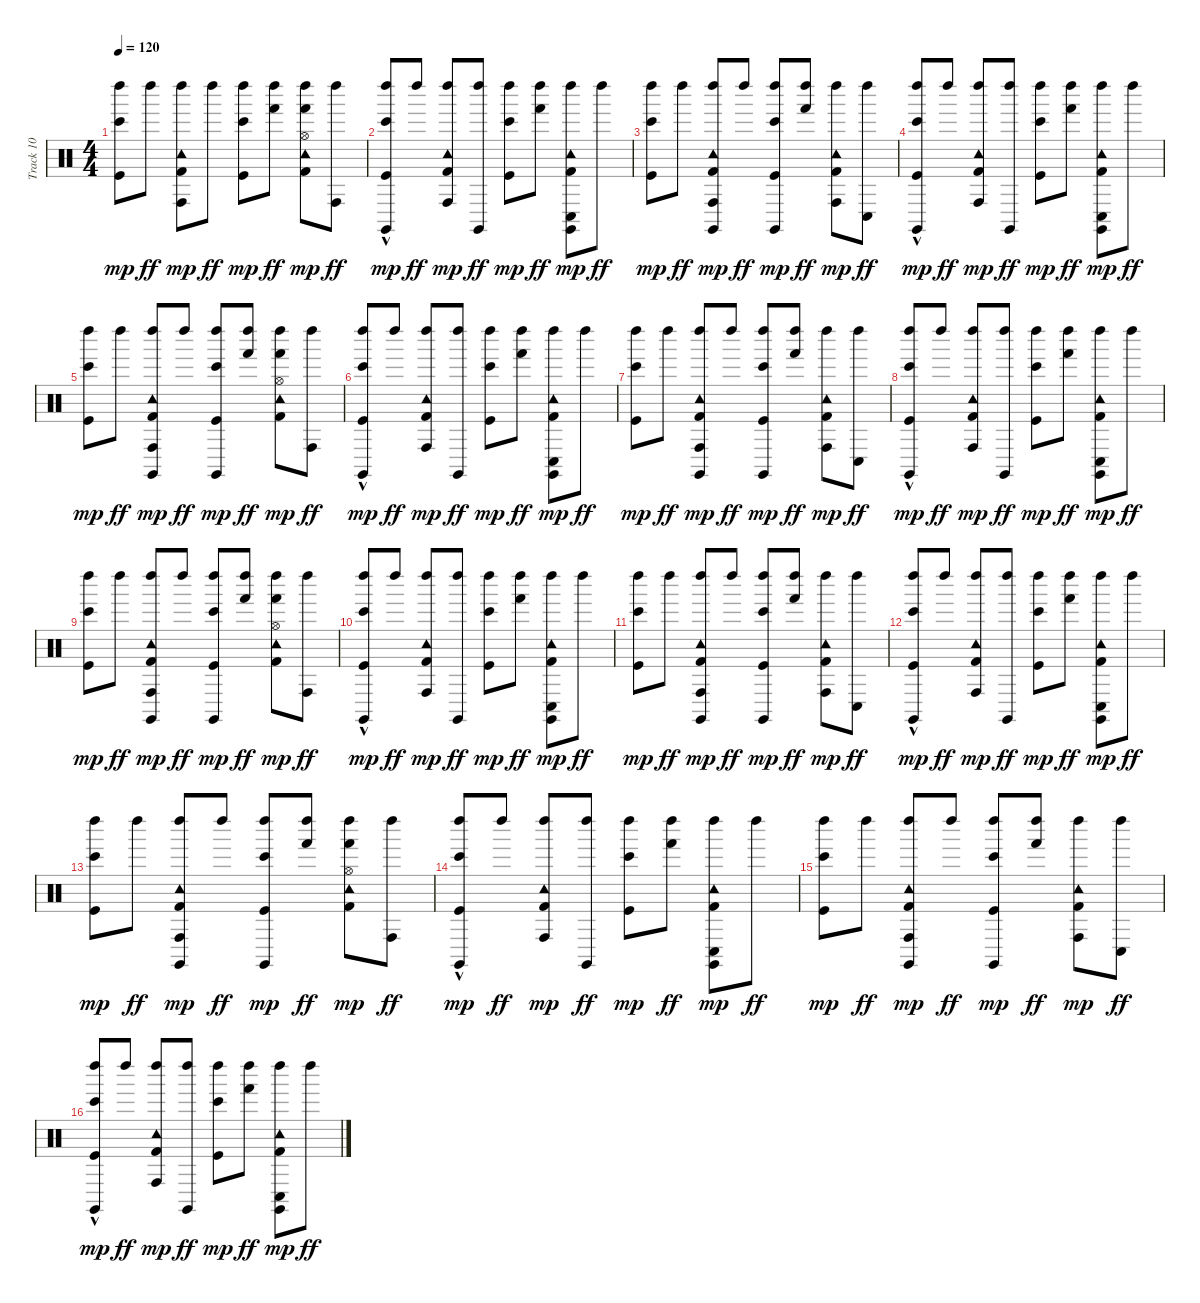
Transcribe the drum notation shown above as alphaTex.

\track ("Track 10" "Track 10") {instrument percussion}
\staff {score}
\articulation defaults
\ts (4 4)
\tempo 120
\clef neutral
\ks c
("Bongo High (hit)" "Left Maraca (hit)" "Kick (hit)").8{dy mp} "Left Maraca (hit)".8{dy ff} ("Conga high (hit)" "Tambourine (hit)" "Left Maraca (hit)" "Kick (hit) 2").8{dy mp} "Left Maraca (hit)".8{dy ff} ("Bongo High (hit)" "Left Maraca (hit)" "Kick (hit)").8{dy mp} ("Hand (hit)" "Left Maraca (hit)").8{dy ff} ("Hand (hit)" "Hi-Hat (open)" "Tambourine (hit)" "Left Maraca (hit)" "Kick (hit) 2").8{dy mp} ("Conga high (hit)" "Left Maraca (hit)").8{dy ff} |
("Bongo High (hit)" "Left Maraca (hit)" "Kick (hit)" "Claves (hit)"{hac}).8{dy mp} "Left Maraca (hit)".8{dy ff} ("Conga high (hit)" "Tambourine (hit)" "Left Maraca (hit)" "Kick (hit) 2").8{dy mp} ("Left Maraca (hit)" "Claves (hit)").8{dy ff} ("Bongo High (hit)" "Left Maraca (hit)" "Kick (hit)").8{dy mp} ("Hand (hit)" "Left Maraca (hit)").8{dy ff} ("Conga low (hit)" "Tambourine (hit)" "Left Maraca (hit)" "Kick (hit) 2" "Claves (hit)").8{dy mp} "Left Maraca (hit)".8{dy ff} |
("Bongo High (hit)" "Left Maraca (hit)" "Kick (hit)").8{dy mp} "Left Maraca (hit)".8{dy ff} ("Conga high (hit)" "Tambourine (hit)" "Left Maraca (hit)" "Kick (hit) 2" "Claves (hit)").8{dy mp} "Left Maraca (hit)".8{dy ff} ("Bongo High (hit)" "Left Maraca (hit)" "Kick (hit)" "Claves (hit)").8{dy mp} ("Hand (hit)" "Left Maraca (hit)").8{dy ff} ("Conga high (hit)" "Tambourine (hit)" "Left Maraca (hit)" "Kick (hit) 2").8{dy mp} ("Conga low (hit)" "Left Maraca (hit)").8{dy ff} |
("Bongo High (hit)" "Left Maraca (hit)" "Kick (hit)" "Claves (hit)"{hac}).8{dy mp} "Left Maraca (hit)".8{dy ff} ("Conga high (hit)" "Tambourine (hit)" "Left Maraca (hit)" "Kick (hit) 2").8{dy mp} ("Left Maraca (hit)" "Claves (hit)").8{dy ff} ("Bongo High (hit)" "Left Maraca (hit)" "Kick (hit)").8{dy mp} ("Hand (hit)" "Left Maraca (hit)").8{dy ff} ("Conga low (hit)" "Tambourine (hit)" "Left Maraca (hit)" "Kick (hit) 2" "Claves (hit)").8{dy mp} "Left Maraca (hit)".8{dy ff} |
("Bongo High (hit)" "Left Maraca (hit)" "Kick (hit)").8{dy mp} "Left Maraca (hit)".8{dy ff} ("Conga high (hit)" "Tambourine (hit)" "Left Maraca (hit)" "Kick (hit) 2" "Claves (hit)").8{dy mp} "Left Maraca (hit)".8{dy ff} ("Bongo High (hit)" "Left Maraca (hit)" "Kick (hit)" "Claves (hit)").8{dy mp} ("Hand (hit)" "Left Maraca (hit)").8{dy ff} ("Hand (hit)" "Hi-Hat (open)" "Tambourine (hit)" "Left Maraca (hit)" "Kick (hit) 2").8{dy mp} ("Conga high (hit)" "Left Maraca (hit)").8{dy ff} |
("Bongo High (hit)" "Left Maraca (hit)" "Kick (hit)" "Claves (hit)"{hac}).8{dy mp} "Left Maraca (hit)".8{dy ff} ("Conga high (hit)" "Tambourine (hit)" "Left Maraca (hit)" "Kick (hit) 2").8{dy mp} ("Left Maraca (hit)" "Claves (hit)").8{dy ff} ("Bongo High (hit)" "Left Maraca (hit)" "Kick (hit)").8{dy mp} ("Hand (hit)" "Left Maraca (hit)").8{dy ff} ("Conga low (hit)" "Tambourine (hit)" "Left Maraca (hit)" "Kick (hit) 2" "Claves (hit)").8{dy mp} "Left Maraca (hit)".8{dy ff} |
("Bongo High (hit)" "Left Maraca (hit)" "Kick (hit)").8{dy mp} "Left Maraca (hit)".8{dy ff} ("Conga high (hit)" "Tambourine (hit)" "Left Maraca (hit)" "Kick (hit) 2" "Claves (hit)").8{dy mp} "Left Maraca (hit)".8{dy ff} ("Bongo High (hit)" "Left Maraca (hit)" "Kick (hit)" "Claves (hit)").8{dy mp} ("Hand (hit)" "Left Maraca (hit)").8{dy ff} ("Conga high (hit)" "Tambourine (hit)" "Left Maraca (hit)" "Kick (hit) 2").8{dy mp} ("Conga low (hit)" "Left Maraca (hit)").8{dy ff} |
("Bongo High (hit)" "Left Maraca (hit)" "Kick (hit)" "Claves (hit)"{hac}).8{dy mp} "Left Maraca (hit)".8{dy ff} ("Conga high (hit)" "Tambourine (hit)" "Left Maraca (hit)" "Kick (hit) 2").8{dy mp} ("Left Maraca (hit)" "Claves (hit)").8{dy ff} ("Bongo High (hit)" "Left Maraca (hit)" "Kick (hit)").8{dy mp} ("Hand (hit)" "Left Maraca (hit)").8{dy ff} ("Conga low (hit)" "Tambourine (hit)" "Left Maraca (hit)" "Kick (hit) 2" "Claves (hit)").8{dy mp} "Left Maraca (hit)".8{dy ff} |
("Bongo High (hit)" "Left Maraca (hit)" "Kick (hit)").8{dy mp} "Left Maraca (hit)".8{dy ff} ("Conga high (hit)" "Tambourine (hit)" "Left Maraca (hit)" "Kick (hit) 2" "Claves (hit)").8{dy mp} "Left Maraca (hit)".8{dy ff} ("Bongo High (hit)" "Left Maraca (hit)" "Kick (hit)" "Claves (hit)").8{dy mp} ("Hand (hit)" "Left Maraca (hit)").8{dy ff} ("Hand (hit)" "Hi-Hat (open)" "Tambourine (hit)" "Left Maraca (hit)" "Kick (hit) 2").8{dy mp} ("Conga high (hit)" "Left Maraca (hit)").8{dy ff} |
("Bongo High (hit)" "Left Maraca (hit)" "Kick (hit)" "Claves (hit)"{hac}).8{dy mp} "Left Maraca (hit)".8{dy ff} ("Conga high (hit)" "Tambourine (hit)" "Left Maraca (hit)" "Kick (hit) 2").8{dy mp} ("Left Maraca (hit)" "Claves (hit)").8{dy ff} ("Bongo High (hit)" "Left Maraca (hit)" "Kick (hit)").8{dy mp} ("Hand (hit)" "Left Maraca (hit)").8{dy ff} ("Conga low (hit)" "Tambourine (hit)" "Left Maraca (hit)" "Kick (hit) 2" "Claves (hit)").8{dy mp} "Left Maraca (hit)".8{dy ff} |
("Bongo High (hit)" "Left Maraca (hit)" "Kick (hit)").8{dy mp} "Left Maraca (hit)".8{dy ff} ("Conga high (hit)" "Tambourine (hit)" "Left Maraca (hit)" "Kick (hit) 2" "Claves (hit)").8{dy mp} "Left Maraca (hit)".8{dy ff} ("Bongo High (hit)" "Left Maraca (hit)" "Kick (hit)" "Claves (hit)").8{dy mp} ("Hand (hit)" "Left Maraca (hit)").8{dy ff} ("Conga high (hit)" "Tambourine (hit)" "Left Maraca (hit)" "Kick (hit) 2").8{dy mp} ("Conga low (hit)" "Left Maraca (hit)").8{dy ff} |
("Bongo High (hit)" "Left Maraca (hit)" "Kick (hit)" "Claves (hit)"{hac}).8{dy mp} "Left Maraca (hit)".8{dy ff} ("Conga high (hit)" "Tambourine (hit)" "Left Maraca (hit)" "Kick (hit) 2").8{dy mp} ("Left Maraca (hit)" "Claves (hit)").8{dy ff} ("Bongo High (hit)" "Left Maraca (hit)" "Kick (hit)").8{dy mp} ("Hand (hit)" "Left Maraca (hit)").8{dy ff} ("Conga low (hit)" "Tambourine (hit)" "Left Maraca (hit)" "Kick (hit) 2" "Claves (hit)").8{dy mp} "Left Maraca (hit)".8{dy ff} |
("Bongo High (hit)" "Left Maraca (hit)" "Kick (hit)").8{dy mp} "Left Maraca (hit)".8{dy ff} ("Conga high (hit)" "Tambourine (hit)" "Left Maraca (hit)" "Kick (hit) 2" "Claves (hit)").8{dy mp} "Left Maraca (hit)".8{dy ff} ("Bongo High (hit)" "Left Maraca (hit)" "Kick (hit)" "Claves (hit)").8{dy mp} ("Hand (hit)" "Left Maraca (hit)").8{dy ff} ("Hand (hit)" "Hi-Hat (open)" "Tambourine (hit)" "Left Maraca (hit)" "Kick (hit) 2").8{dy mp} ("Conga high (hit)" "Left Maraca (hit)").8{dy ff} |
("Bongo High (hit)" "Left Maraca (hit)" "Kick (hit)" "Claves (hit)"{hac}).8{dy mp} "Left Maraca (hit)".8{dy ff} ("Conga high (hit)" "Tambourine (hit)" "Left Maraca (hit)" "Kick (hit) 2").8{dy mp} ("Left Maraca (hit)" "Claves (hit)").8{dy ff} ("Bongo High (hit)" "Left Maraca (hit)" "Kick (hit)").8{dy mp} ("Hand (hit)" "Left Maraca (hit)").8{dy ff} ("Conga low (hit)" "Tambourine (hit)" "Left Maraca (hit)" "Kick (hit) 2" "Claves (hit)").8{dy mp} "Left Maraca (hit)".8{dy ff} |
("Bongo High (hit)" "Left Maraca (hit)" "Kick (hit)").8{dy mp} "Left Maraca (hit)".8{dy ff} ("Conga high (hit)" "Tambourine (hit)" "Left Maraca (hit)" "Kick (hit) 2" "Claves (hit)").8{dy mp} "Left Maraca (hit)".8{dy ff} ("Bongo High (hit)" "Left Maraca (hit)" "Kick (hit)" "Claves (hit)").8{dy mp} ("Hand (hit)" "Left Maraca (hit)").8{dy ff} ("Conga high (hit)" "Tambourine (hit)" "Left Maraca (hit)" "Kick (hit) 2").8{dy mp} ("Conga low (hit)" "Left Maraca (hit)").8{dy ff} |
("Bongo High (hit)" "Left Maraca (hit)" "Kick (hit)" "Claves (hit)"{hac}).8{dy mp} "Left Maraca (hit)".8{dy ff} ("Conga high (hit)" "Tambourine (hit)" "Left Maraca (hit)" "Kick (hit) 2").8{dy mp} ("Left Maraca (hit)" "Claves (hit)").8{dy ff} ("Bongo High (hit)" "Left Maraca (hit)" "Kick (hit)").8{dy mp} ("Hand (hit)" "Left Maraca (hit)").8{dy ff} ("Conga low (hit)" "Tambourine (hit)" "Left Maraca (hit)" "Kick (hit) 2" "Claves (hit)").8{dy mp} "Left Maraca (hit)".8{dy ff}
